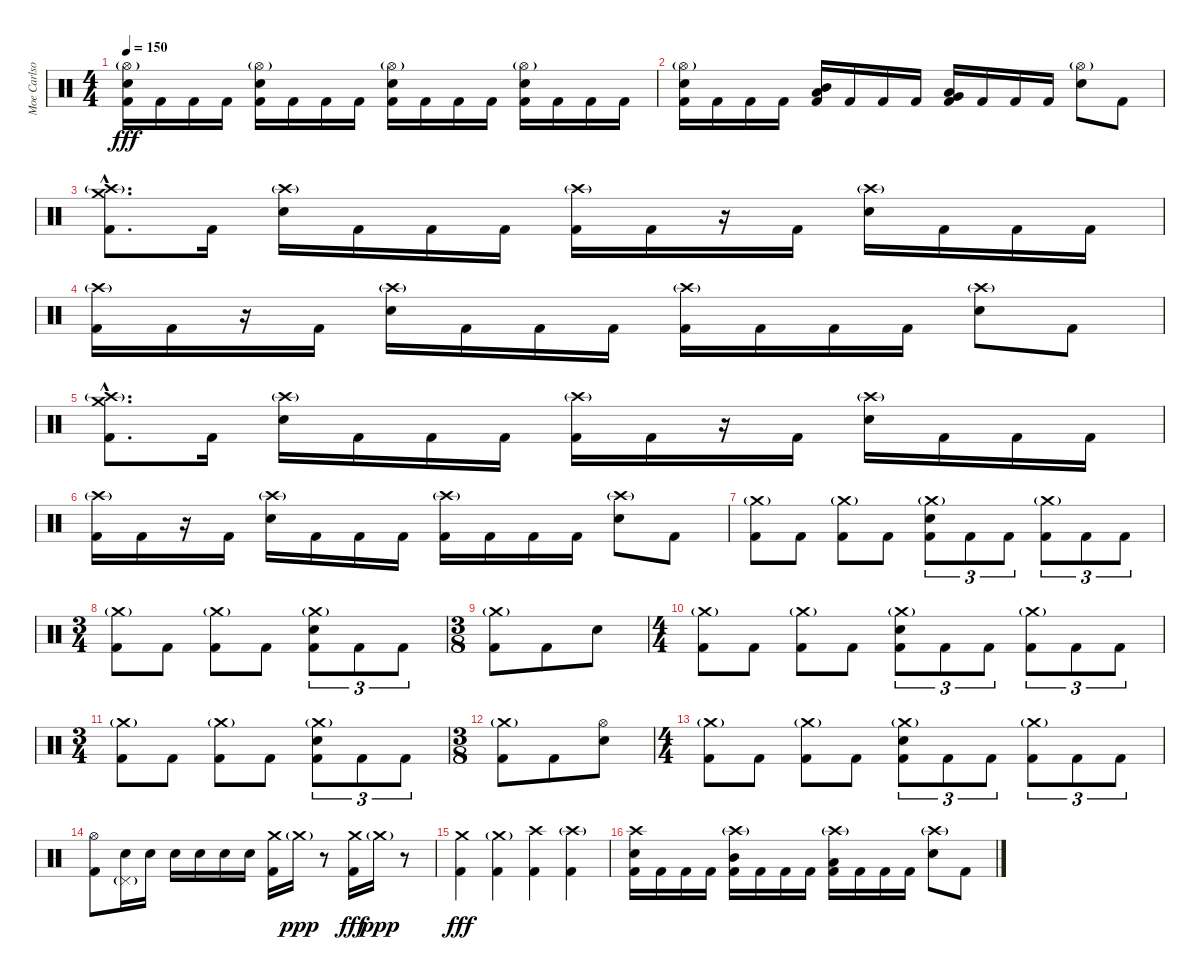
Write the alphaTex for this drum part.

\track ("Moe Carlson" "Moe Carlso") {instrument percussion}
\staff {score}
\articulation defaults
\ts (4 4)
\tempo 150
\clef neutral
\ks c
("Hi-Hat (open)"{g} "Electric Snare (hit)" "Kick (hit) 2").16{dy fff} "Kick (hit) 2".16 "Kick (hit) 2".16 "Kick (hit) 2".16 ("Hi-Hat (open)"{g} "Electric Snare (hit)" "Kick (hit) 2").16 "Kick (hit) 2".16 "Kick (hit) 2".16 "Kick (hit) 2".16 ("Hi-Hat (open)"{g} "Electric Snare (hit)" "Kick (hit) 2").16 "Kick (hit) 2".16 "Kick (hit) 2".16 "Kick (hit) 2".16 ("Hi-Hat (open)"{g} "Electric Snare (hit)" "Kick (hit) 2").16 "Kick (hit) 2".16 "Kick (hit) 2".16 "Kick (hit) 2".16 |
("Hi-Hat (open)"{g} "Electric Snare (hit)" "Kick (hit) 2").16 "Kick (hit) 2".16 "Kick (hit) 2".16 "Kick (hit) 2".16 ("Mid Tom (hit)" "Low Tom (hit)" "Kick (hit) 2").16 "Kick (hit) 2".16 "Kick (hit) 2".16 "Kick (hit) 2".16 ("Low Tom (hit)" "Very Low Tom (hit)" "Kick (hit) 2").16 "Kick (hit) 2".16 "Kick (hit) 2".16 "Kick (hit) 2".16 ("Hi-Hat (open)"{g} "Electric Snare (hit)").8 "Kick (hit) 2".8 |
("Crash high (hit)"{g hac} "Crash medium (hit)"{hac} "Kick (hit) 2"{hac}).8{d} "Kick (hit) 2".16 ("Crash high (hit)"{g} "Electric Snare (hit)").16 "Kick (hit) 2".16 "Kick (hit) 2".16 "Kick (hit) 2".16 ("Crash high (hit)"{g} "Kick (hit) 2").16 "Kick (hit) 2".16 r.16 "Kick (hit) 2".16 ("Crash high (hit)"{g} "Electric Snare (hit)").16 "Kick (hit) 2".16 "Kick (hit) 2".16 "Kick (hit) 2".16 |
("Crash high (hit)"{g} "Kick (hit) 2").16 "Kick (hit) 2".16 r.16 "Kick (hit) 2".16 ("Crash high (hit)"{g} "Electric Snare (hit)").16 "Kick (hit) 2".16 "Kick (hit) 2".16 "Kick (hit) 2".16 ("Crash high (hit)"{g} "Kick (hit) 2").16 "Kick (hit) 2".16 "Kick (hit) 2".16 "Kick (hit) 2".16 ("Crash high (hit)"{g} "Electric Snare (hit)").8 "Kick (hit) 2".8 |
("Crash high (hit)"{g hac} "Crash medium (hit)"{hac} "Kick (hit) 2"{hac}).8{d} "Kick (hit) 2".16 ("Crash high (hit)"{g} "Electric Snare (hit)").16 "Kick (hit) 2".16 "Kick (hit) 2".16 "Kick (hit) 2".16 ("Crash high (hit)"{g} "Kick (hit) 2").16 "Kick (hit) 2".16 r.16 "Kick (hit) 2".16 ("Crash high (hit)"{g} "Electric Snare (hit)").16 "Kick (hit) 2".16 "Kick (hit) 2".16 "Kick (hit) 2".16 |
("Crash high (hit)"{g} "Kick (hit) 2").16 "Kick (hit) 2".16 r.16 "Kick (hit) 2".16 ("Crash high (hit)"{g} "Electric Snare (hit)").16 "Kick (hit) 2".16 "Kick (hit) 2".16 "Kick (hit) 2".16 ("Crash high (hit)"{g} "Kick (hit) 2").16 "Kick (hit) 2".16 "Kick (hit) 2".16 "Kick (hit) 2".16 ("Crash high (hit)"{g} "Electric Snare (hit)").8 "Kick (hit) 2".8 |
("Crash medium (hit)"{g} "Kick (hit) 2").8 "Kick (hit) 2".8 ("Crash medium (hit)"{g} "Kick (hit) 2").8 "Kick (hit) 2".8 ("Crash medium (hit)"{g} "Electric Snare (hit)" "Kick (hit) 2").8{tu (3 2)} "Kick (hit) 2".8{tu (3 2)} "Kick (hit) 2".8{tu (3 2)} ("Crash medium (hit)"{g} "Kick (hit) 2").8{tu (3 2)} "Kick (hit) 2".8{tu (3 2)} "Kick (hit) 2".8{tu (3 2)} |
\ts (3 4)
("Crash medium (hit)"{g} "Kick (hit) 2").8 "Kick (hit) 2".8 ("Crash medium (hit)"{g} "Kick (hit) 2").8 "Kick (hit) 2".8 ("Crash medium (hit)"{g} "Electric Snare (hit)" "Kick (hit) 2").8{tu (3 2)} "Kick (hit) 2".8{tu (3 2)} "Kick (hit) 2".8{tu (3 2)} |
\ts (3 8)
("Crash medium (hit)"{g} "Kick (hit) 2").8 "Kick (hit) 2".8 "Electric Snare (hit)".8 |
\ts (4 4)
("Crash medium (hit)"{g} "Kick (hit) 2").8 "Kick (hit) 2".8 ("Crash medium (hit)"{g} "Kick (hit) 2").8 "Kick (hit) 2".8 ("Crash medium (hit)"{g} "Electric Snare (hit)" "Kick (hit) 2").8{tu (3 2)} "Kick (hit) 2".8{tu (3 2)} "Kick (hit) 2".8{tu (3 2)} ("Crash medium (hit)"{g} "Kick (hit) 2").8{tu (3 2)} "Kick (hit) 2".8{tu (3 2)} "Kick (hit) 2".8{tu (3 2)} |
\ts (3 4)
("Crash medium (hit)"{g} "Kick (hit) 2").8 "Kick (hit) 2".8 ("Crash medium (hit)"{g} "Kick (hit) 2").8 "Kick (hit) 2".8 ("Crash medium (hit)"{g} "Electric Snare (hit)" "Kick (hit) 2").8{tu (3 2)} "Kick (hit) 2".8{tu (3 2)} "Kick (hit) 2".8{tu (3 2)} |
\ts (3 8)
("Crash medium (hit)"{g} "Kick (hit) 2").8 "Kick (hit) 2".8 ("Hi-Hat (open)" "Electric Snare (hit)").8 |
\ts (4 4)
("Crash medium (hit)"{g} "Kick (hit) 2").8 "Kick (hit) 2".8 ("Crash medium (hit)"{g} "Kick (hit) 2").8 "Kick (hit) 2".8 ("Crash medium (hit)"{g} "Electric Snare (hit)" "Kick (hit) 2").8{tu (3 2)} "Kick (hit) 2".8{tu (3 2)} "Kick (hit) 2".8{tu (3 2)} ("Crash medium (hit)"{g} "Kick (hit) 2").8{tu (3 2)} "Kick (hit) 2".8{tu (3 2)} "Kick (hit) 2".8{tu (3 2)} |
("Hi-Hat (open)" "Kick (hit) 2").8 ("Electric Snare (hit)" "Pedal Hi-Hat (hit)"{g}).16 "Electric Snare (hit)".16 "Electric Snare (hit)".16 "Electric Snare (hit)".16 "Electric Snare (hit)".16 "Electric Snare (hit)".16 ("Crash medium (hit)" "Kick (hit) 2").16 "Crash medium (hit)"{g}.16{dy ppp} r.8 ("Crash medium (hit)" "Kick (hit) 2").16{dy fff} "Crash medium (hit)"{g}.16{dy ppp} r.8 |
("Crash medium (hit)" "Kick (hit) 2").4{dy fff} ("Crash medium (hit)"{g} "Kick (hit) 2").4 ("Crash high (hit)" "Kick (hit) 2").4 ("Crash high (hit)"{g} "Kick (hit) 2").4 |
("Crash high (hit)" "Electric Snare (hit)" "Kick (hit) 2").16 "Kick (hit) 2".16 "Kick (hit) 2".16 "Kick (hit) 2".16 ("Crash high (hit)"{g} "Mid Tom (hit)" "Kick (hit) 2").16 "Kick (hit) 2".16 "Kick (hit) 2".16 "Kick (hit) 2".16 ("Crash high (hit)"{g} "Low Tom (hit)" "Kick (hit) 2").16 "Kick (hit) 2".16 "Kick (hit) 2".16 "Kick (hit) 2".16 ("Crash high (hit)"{g} "Electric Snare (hit)").8 "Kick (hit) 2".8
